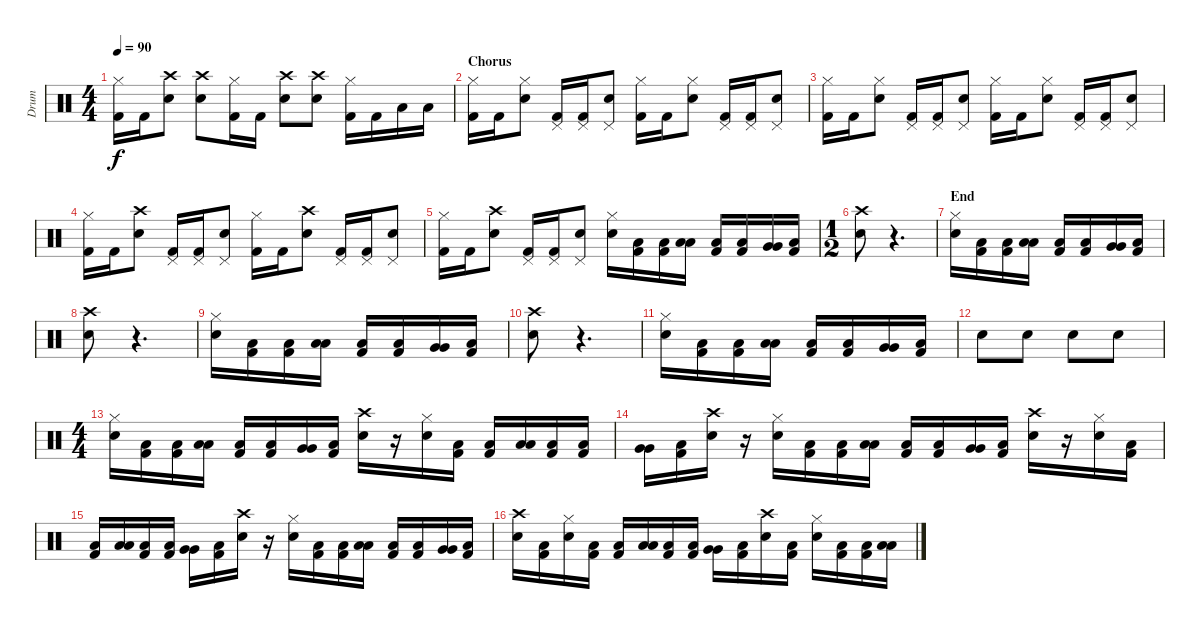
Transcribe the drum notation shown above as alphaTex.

\track ("Drum" "Drum") {instrument percussion}
\staff {score}
\articulation defaults
\ts (4 4)
\tempo 90
\clef neutral
\ks c
("Hi-Hat (closed)" "Kick (hit) 2").16{dy f} "Kick (hit) 2".16 ("Crash high (hit)" "Electric Snare (hit)").8 ("Crash high (hit)" "Electric Snare (hit)").8 ("Hi-Hat (closed)" "Kick (hit) 2").16 "Kick (hit) 2".16 ("Crash high (hit)" "Electric Snare (hit)").8 ("Crash high (hit)" "Electric Snare (hit)").8 ("Hi-Hat (closed)" "Kick (hit) 2").16 "Kick (hit) 2".16 "Low Tom (hit)".16 "Low Tom (hit)".16 |
\section ("" "Chorus")
("Hi-Hat (closed)" "Kick (hit) 2").16 "Kick (hit) 2".16 ("Hi-Hat (closed)" "Electric Snare (hit)").8 ("Pedal Hi-Hat (hit)" "Kick (hit) 2").16 ("Pedal Hi-Hat (hit)" "Kick (hit) 2").16 ("Pedal Hi-Hat (hit)" "Electric Snare (hit)").8 ("Hi-Hat (closed)" "Kick (hit) 2").16 "Kick (hit) 2".16 ("Hi-Hat (closed)" "Electric Snare (hit)").8 ("Pedal Hi-Hat (hit)" "Kick (hit) 2").16 ("Pedal Hi-Hat (hit)" "Kick (hit) 2").16 ("Pedal Hi-Hat (hit)" "Electric Snare (hit)").8 |
("Hi-Hat (closed)" "Kick (hit) 2").16 "Kick (hit) 2".16 ("Hi-Hat (closed)" "Electric Snare (hit)").8 ("Pedal Hi-Hat (hit)" "Kick (hit) 2").16 ("Pedal Hi-Hat (hit)" "Kick (hit) 2").16 ("Pedal Hi-Hat (hit)" "Electric Snare (hit)").8 ("Hi-Hat (closed)" "Kick (hit) 2").16 "Kick (hit) 2".16 ("Hi-Hat (closed)" "Electric Snare (hit)").8 ("Pedal Hi-Hat (hit)" "Kick (hit) 2").16 ("Pedal Hi-Hat (hit)" "Kick (hit) 2").16 ("Pedal Hi-Hat (hit)" "Electric Snare (hit)").8 |
("Hi-Hat (closed)" "Kick (hit) 2").16 "Kick (hit) 2".16 ("Crash high (hit)" "Electric Snare (hit)").8 ("Pedal Hi-Hat (hit)" "Kick (hit) 2").16 ("Pedal Hi-Hat (hit)" "Kick (hit) 2").16 ("Pedal Hi-Hat (hit)" "Electric Snare (hit)").8 ("Hi-Hat (closed)" "Kick (hit) 2").16 "Kick (hit) 2".16 ("Crash high (hit)" "Electric Snare (hit)").8 ("Pedal Hi-Hat (hit)" "Kick (hit) 2").16 ("Pedal Hi-Hat (hit)" "Kick (hit) 2").16 ("Pedal Hi-Hat (hit)" "Electric Snare (hit)").8 |
("Hi-Hat (closed)" "Kick (hit) 2").16 "Kick (hit) 2".16 ("Crash high (hit)" "Electric Snare (hit)").8 ("Pedal Hi-Hat (hit)" "Kick (hit) 2").16 ("Pedal Hi-Hat (hit)" "Kick (hit) 2").16 ("Pedal Hi-Hat (hit)" "Electric Snare (hit)").8 ("Hi-Hat (closed)" "Electric Snare (hit)").16 ("Low Tom (hit)" "Kick (hit) 2").16 ("Low Tom (hit)" "Kick (hit) 2").16 ("Low Tom (hit)" "Low Tom (hit)").16 ("Low Tom (hit)" "Kick (hit) 2").16 ("Low Tom (hit)" "Kick (hit) 2").16 ("Very Low Tom (hit)" "Very Low Tom (hit)").16 ("Low Tom (hit)" "Kick (hit) 2").16 |
\ts (1 2)
("Crash high (hit)" "Electric Snare (hit)").8 r.4{d} |
\section ("" "End")
("Hi-Hat (closed)" "Electric Snare (hit)").16 ("Low Tom (hit)" "Kick (hit) 2").16 ("Low Tom (hit)" "Kick (hit) 2").16 ("Low Tom (hit)" "Low Tom (hit)").16 ("Low Tom (hit)" "Kick (hit) 2").16 ("Low Tom (hit)" "Kick (hit) 2").16 ("Very Low Tom (hit)" "Very Low Tom (hit)").16 ("Low Tom (hit)" "Kick (hit) 2").16 |
("Crash high (hit)" "Electric Snare (hit)").8 r.4{d} |
("Hi-Hat (closed)" "Electric Snare (hit)").16 ("Low Tom (hit)" "Kick (hit) 2").16 ("Low Tom (hit)" "Kick (hit) 2").16 ("Low Tom (hit)" "Low Tom (hit)").16 ("Low Tom (hit)" "Kick (hit) 2").16 ("Low Tom (hit)" "Kick (hit) 2").16 ("Very Low Tom (hit)" "Very Low Tom (hit)").16 ("Low Tom (hit)" "Kick (hit) 2").16 |
("Crash high (hit)" "Electric Snare (hit)").8 r.4{d} |
("Hi-Hat (closed)" "Electric Snare (hit)").16 ("Low Tom (hit)" "Kick (hit) 2").16 ("Low Tom (hit)" "Kick (hit) 2").16 ("Low Tom (hit)" "Low Tom (hit)").16 ("Low Tom (hit)" "Kick (hit) 2").16 ("Low Tom (hit)" "Kick (hit) 2").16 ("Very Low Tom (hit)" "Very Low Tom (hit)").16 ("Low Tom (hit)" "Kick (hit) 2").16 |
"Electric Snare (hit)".8 "Electric Snare (hit)".8 "Electric Snare (hit)".8 "Electric Snare (hit)".8 |
\ts (4 4)
("Hi-Hat (closed)" "Electric Snare (hit)").16 ("Low Tom (hit)" "Kick (hit) 2").16 ("Low Tom (hit)" "Kick (hit) 2").16 ("Low Tom (hit)" "Low Tom (hit)").16 ("Low Tom (hit)" "Kick (hit) 2").16 ("Low Tom (hit)" "Kick (hit) 2").16 ("Very Low Tom (hit)" "Very Low Tom (hit)").16 ("Low Tom (hit)" "Kick (hit) 2").16 ("Crash high (hit)" "Electric Snare (hit)").16 r.16 ("Hi-Hat (closed)" "Electric Snare (hit)").16 ("Low Tom (hit)" "Kick (hit) 2").16 ("Low Tom (hit)" "Kick (hit) 2").16 ("Low Tom (hit)" "Low Tom (hit)").16 ("Low Tom (hit)" "Kick (hit) 2").16 ("Low Tom (hit)" "Kick (hit) 2").16 |
("Very Low Tom (hit)" "Very Low Tom (hit)").16 ("Low Tom (hit)" "Kick (hit) 2").16 ("Crash high (hit)" "Electric Snare (hit)").16 r.16 ("Hi-Hat (closed)" "Electric Snare (hit)").16 ("Low Tom (hit)" "Kick (hit) 2").16 ("Low Tom (hit)" "Kick (hit) 2").16 ("Low Tom (hit)" "Low Tom (hit)").16 ("Low Tom (hit)" "Kick (hit) 2").16 ("Low Tom (hit)" "Kick (hit) 2").16 ("Very Low Tom (hit)" "Very Low Tom (hit)").16 ("Low Tom (hit)" "Kick (hit) 2").16 ("Crash high (hit)" "Electric Snare (hit)").16 r.16 ("Hi-Hat (closed)" "Electric Snare (hit)").16 ("Low Tom (hit)" "Kick (hit) 2").16 |
("Low Tom (hit)" "Kick (hit) 2").16 ("Low Tom (hit)" "Low Tom (hit)").16 ("Low Tom (hit)" "Kick (hit) 2").16 ("Low Tom (hit)" "Kick (hit) 2").16 ("Very Low Tom (hit)" "Very Low Tom (hit)").16 ("Low Tom (hit)" "Kick (hit) 2").16 ("Crash high (hit)" "Electric Snare (hit)").16 r.16 ("Hi-Hat (closed)" "Electric Snare (hit)").16 ("Low Tom (hit)" "Kick (hit) 2").16 ("Low Tom (hit)" "Kick (hit) 2").16 ("Low Tom (hit)" "Low Tom (hit)").16 ("Low Tom (hit)" "Kick (hit) 2").16 ("Low Tom (hit)" "Kick (hit) 2").16 ("Very Low Tom (hit)" "Very Low Tom (hit)").16 ("Low Tom (hit)" "Kick (hit) 2").16 |
("Crash high (hit)" "Electric Snare (hit)").16 ("Low Tom (hit)" "Kick (hit) 2").16 ("Hi-Hat (closed)" "Electric Snare (hit)").16 ("Low Tom (hit)" "Kick (hit) 2").16 ("Low Tom (hit)" "Kick (hit) 2").16 ("Low Tom (hit)" "Low Tom (hit)").16 ("Low Tom (hit)" "Kick (hit) 2").16 ("Low Tom (hit)" "Kick (hit) 2").16 ("Very Low Tom (hit)" "Very Low Tom (hit)").16 ("Low Tom (hit)" "Kick (hit) 2").16 ("Crash high (hit)" "Electric Snare (hit)").16 ("Low Tom (hit)" "Kick (hit) 2").16 ("Hi-Hat (closed)" "Electric Snare (hit)").16 ("Low Tom (hit)" "Kick (hit) 2").16 ("Low Tom (hit)" "Kick (hit) 2").16 ("Low Tom (hit)" "Low Tom (hit)").16
